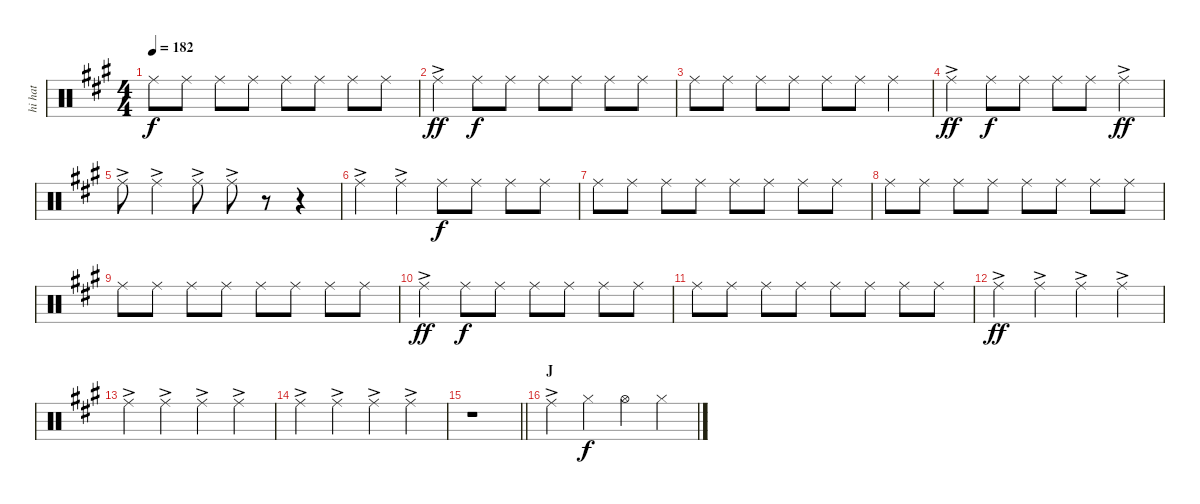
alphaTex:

\track ("hi hat" "hi hat") {instrument percussion}
\staff {score}
\articulation defaults
\ts (4 4)
\tempo 182
\clef neutral
\ks f#minor "Ride (middle)".8{dy f} "Ride (middle)".8 "Ride (middle)".8 "Ride (middle)".8 "Ride (middle)".8 "Ride (middle)".8 "Ride (middle)".8 "Ride (middle)".8
|
"Ride (middle)"{ac}.4{dy ff} "Ride (middle)".8{dy f} "Ride (middle)".8 "Ride (middle)".8 "Ride (middle)".8 "Ride (middle)".8 "Ride (middle)".8 |
"Ride (middle)".8 "Ride (middle)".8 "Ride (middle)".8 "Ride (middle)".8 "Ride (middle)".8 "Ride (middle)".8 "Ride (middle)".4 |
"Ride (middle)"{ac}.4{dy ff} "Ride (middle)".8{dy f} "Ride (middle)".8 "Ride (middle)".8 "Ride (middle)".8 "Ride (middle)"{ac}.4{dy ff} |
"Ride (middle)"{ac}.8 "Ride (middle)"{ac}.4 "Ride (middle)"{ac}.8 "Ride (middle)"{ac}.8 r.8 r.4 |
"Ride (middle)"{ac}.4 "Ride (middle)"{ac}.4 "Ride (middle)".8{dy f} "Ride (middle)".8 "Ride (middle)".8 "Ride (middle)".8 |
"Ride (middle)".8 "Ride (middle)".8 "Ride (middle)".8 "Ride (middle)".8 "Ride (middle)".8 "Ride (middle)".8 "Ride (middle)".8 "Ride (middle)".8 |
"Ride (middle)".8 "Ride (middle)".8 "Ride (middle)".8 "Ride (middle)".8 "Ride (middle)".8 "Ride (middle)".8 "Ride (middle)".8 "Ride (middle)".8 |
"Ride (middle)".8 "Ride (middle)".8 "Ride (middle)".8 "Ride (middle)".8 "Ride (middle)".8 "Ride (middle)".8 "Ride (middle)".8 "Ride (middle)".8 |
"Ride (middle)"{ac}.4{dy ff} "Ride (middle)".8{dy f} "Ride (middle)".8 "Ride (middle)".8 "Ride (middle)".8 "Ride (middle)".8 "Ride (middle)".8 |
"Ride (middle)".8 "Ride (middle)".8 "Ride (middle)".8 "Ride (middle)".8 "Ride (middle)".8 "Ride (middle)".8 "Ride (middle)".8 "Ride (middle)".8 |
"Ride (middle)"{ac}.4{dy ff} "Ride (middle)"{ac}.4 "Ride (middle)"{ac}.4 "Ride (middle)"{ac}.4 |
"Ride (middle)"{ac}.4 "Ride (middle)"{ac}.4 "Ride (middle)"{ac}.4 "Ride (middle)"{ac}.4 |
"Ride (middle)"{ac}.4 "Ride (middle)"{ac}.4 "Ride (middle)"{ac}.4 "Ride (middle)"{ac}.4 |
\barLineRight lightlight
r.1 |
\section ("" "J")
"Ride (middle)"{ac}.4 "Hi-Hat (closed)".4{dy f} "Hi-Hat (open)".4 "Hi-Hat (closed)".4
